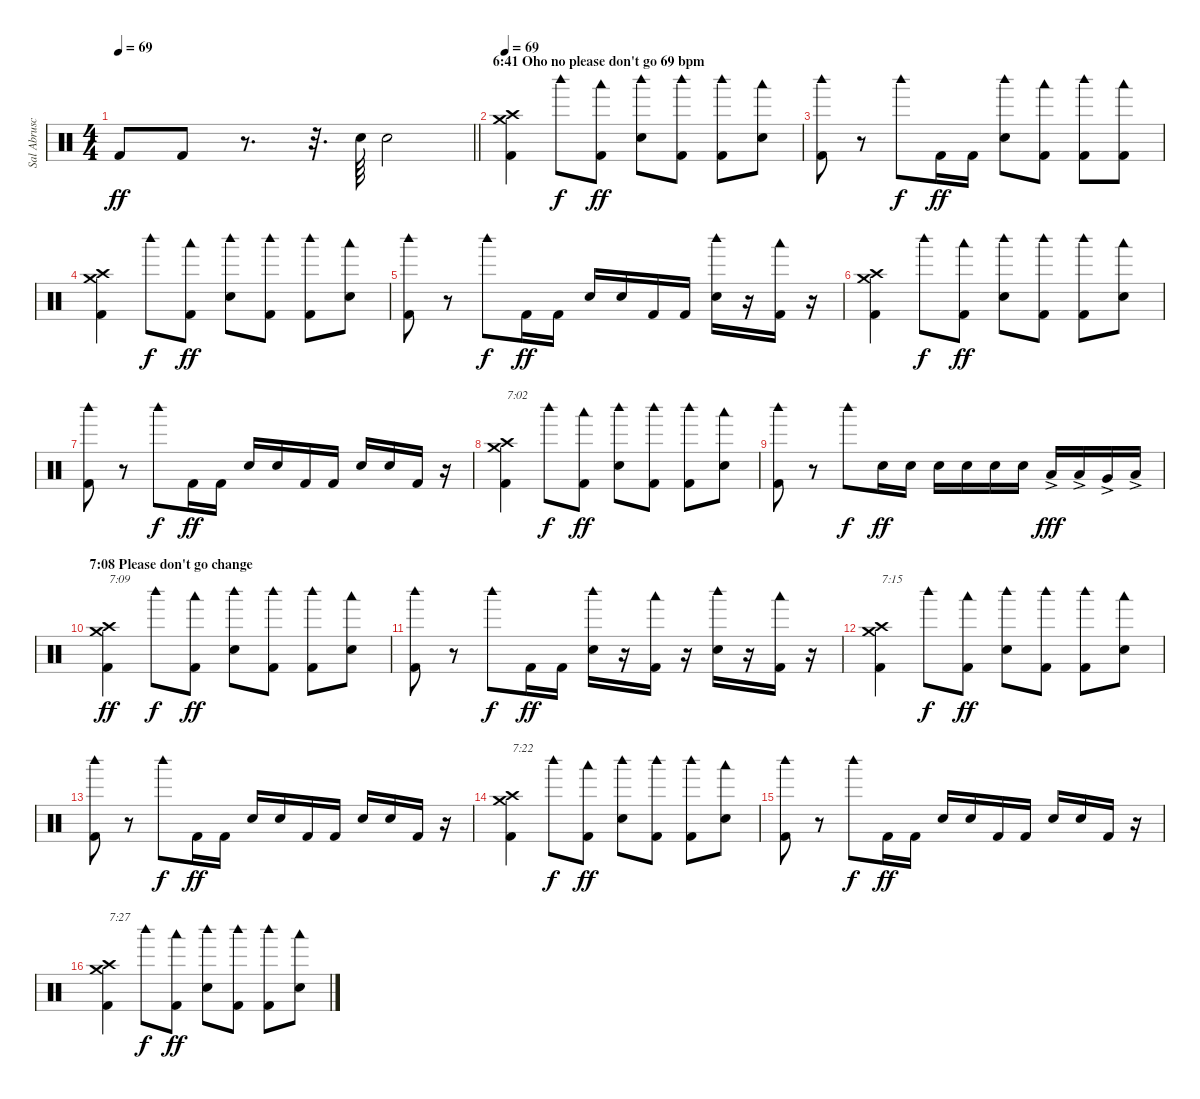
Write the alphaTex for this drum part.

\track ("Sal Abruscato (Drums)" "Sal Abrusc") {instrument percussion}
\staff {score}
\articulation defaults
\ts (4 4)
\tempo 69
\clef neutral
\barLineRight lightlight
\ks c "Kick (hit) 2".8{dy ff} "Kick (hit) 2".8
r.8{d} r.32{d} "Electric Snare (hit)".64 "Electric Snare (hit)".2 |
\section ("" "6:41 Oho no please don't go 69 bpm")
\tempo 69
("Kick (hit) 2" "Crash medium (hit)" "Crash high (hit)").4 "Woodblock high (hit)".8{dy f} ("Kick (hit) 2" "Woodblock low (hit)").8{dy ff} ("Electric Snare (hit)" "Woodblock high (hit)").8 ("Kick (hit) 2" "Woodblock high (hit)").8 ("Kick (hit) 2" "Woodblock high (hit)").8 ("Electric Snare (hit)" "Woodblock low (hit)").8 |
("Kick (hit) 2" "Woodblock high (hit)").8 r.8 "Woodblock high (hit)".8{dy f} "Kick (hit) 2".16{dy ff} "Kick (hit) 2".16 ("Electric Snare (hit)" "Woodblock high (hit)").8 ("Kick (hit) 2" "Woodblock low (hit)").8 ("Kick (hit) 2" "Woodblock high (hit)").8 ("Kick (hit) 2" "Woodblock low (hit)").8 |
("Kick (hit) 2" "Crash medium (hit)" "Crash high (hit)").4 "Woodblock high (hit)".8{dy f} ("Kick (hit) 2" "Woodblock low (hit)").8{dy ff} ("Electric Snare (hit)" "Woodblock high (hit)").8 ("Kick (hit) 2" "Woodblock high (hit)").8 ("Kick (hit) 2" "Woodblock high (hit)").8 ("Electric Snare (hit)" "Woodblock low (hit)").8 |
("Kick (hit) 2" "Woodblock high (hit)").8 r.8 "Woodblock high (hit)".8{dy f} "Kick (hit) 2".16{dy ff} "Kick (hit) 2".16 "Electric Snare (hit)".16 "Electric Snare (hit)".16 "Kick (hit) 2".16 "Kick (hit) 2".16 ("Electric Snare (hit)" "Woodblock high (hit)").16 r.16 ("Kick (hit) 2" "Woodblock low (hit)").16 r.16 |
("Kick (hit) 2" "Crash high (hit)" "Crash medium (hit)").4 "Woodblock high (hit)".8{dy f} ("Kick (hit) 2" "Woodblock low (hit)").8{dy ff} ("Electric Snare (hit)" "Woodblock high (hit)").8 ("Kick (hit) 2" "Woodblock high (hit)").8 ("Kick (hit) 2" "Woodblock high (hit)").8 ("Electric Snare (hit)" "Woodblock low (hit)").8 |
("Kick (hit) 2" "Woodblock high (hit)").8 r.8 "Woodblock high (hit)".8{dy f} "Kick (hit) 2".16{dy ff} "Kick (hit) 2".16 "Electric Snare (hit)".16 "Electric Snare (hit)".16 "Kick (hit) 2".16 "Kick (hit) 2".16 "Electric Snare (hit)".16 "Electric Snare (hit)".16 "Kick (hit) 2".16 r.16 |
("Kick (hit) 2" "Crash high (hit)" "Crash medium (hit)").4{txt "7:02"} "Woodblock high (hit)".8{dy f} ("Kick (hit) 2" "Woodblock low (hit)").8{dy ff} ("Electric Snare (hit)" "Woodblock high (hit)").8 ("Kick (hit) 2" "Woodblock high (hit)").8 ("Kick (hit) 2" "Woodblock high (hit)").8 ("Electric Snare (hit)" "Woodblock low (hit)").8 |
("Kick (hit) 2" "Woodblock high (hit)").8 r.8 "Woodblock high (hit)".8{dy f} "Electric Snare (hit)".16{dy ff} "Electric Snare (hit)".16 "Electric Snare (hit)".16 "Electric Snare (hit)".16 "Electric Snare (hit)".16 "Electric Snare (hit)".16 "Low Tom (hit)"{ac}.16{dy fff} "Low Tom (hit)"{ac}.16 "Very Low Tom (hit)"{ac}.16 "Low Floor Tom (hit)"{ac}.16 |
\section ("" "7:08 Please don't go change")
("Kick (hit) 2" "Crash high (hit)" "Crash medium (hit)").4{txt "7:09" dy ff} "Woodblock high (hit)".8{dy f} ("Kick (hit) 2" "Woodblock low (hit)").8{dy ff} ("Electric Snare (hit)" "Woodblock high (hit)").8 ("Kick (hit) 2" "Woodblock high (hit)").8 ("Kick (hit) 2" "Woodblock high (hit)").8 ("Electric Snare (hit)" "Woodblock low (hit)").8 |
("Kick (hit) 2" "Woodblock high (hit)").8 r.8 "Woodblock high (hit)".8{dy f} "Kick (hit) 2".16{dy ff} "Kick (hit) 2".16 ("Electric Snare (hit)" "Woodblock high (hit)").16 r.16 ("Kick (hit) 2" "Woodblock low (hit)").16 r.16 ("Electric Snare (hit)" "Woodblock high (hit)").16 r.16 ("Kick (hit) 2" "Woodblock low (hit)").16 r.16 |
("Kick (hit) 2" "Crash high (hit)" "Crash medium (hit)").4{txt "7:15"} "Woodblock high (hit)".8{dy f} ("Kick (hit) 2" "Woodblock low (hit)").8{dy ff} ("Electric Snare (hit)" "Woodblock high (hit)").8 ("Kick (hit) 2" "Woodblock high (hit)").8 ("Kick (hit) 2" "Woodblock high (hit)").8 ("Electric Snare (hit)" "Woodblock low (hit)").8 |
("Kick (hit) 2" "Woodblock high (hit)").8 r.8 "Woodblock high (hit)".8{dy f} "Kick (hit) 2".16{dy ff} "Kick (hit) 2".16 "Electric Snare (hit)".16 "Electric Snare (hit)".16 "Kick (hit) 2".16 "Kick (hit) 2".16 "Electric Snare (hit)".16 "Electric Snare (hit)".16 "Kick (hit) 2".16 r.16 |
("Kick (hit) 2" "Crash high (hit)" "Crash medium (hit)").4{txt "7:22"} "Woodblock high (hit)".8{dy f} ("Kick (hit) 2" "Woodblock low (hit)").8{dy ff} ("Electric Snare (hit)" "Woodblock high (hit)").8 ("Kick (hit) 2" "Woodblock high (hit)").8 ("Kick (hit) 2" "Woodblock high (hit)").8 ("Electric Snare (hit)" "Woodblock low (hit)").8 |
("Kick (hit) 2" "Woodblock high (hit)").8 r.8 "Woodblock high (hit)".8{dy f} "Kick (hit) 2".16{dy ff} "Kick (hit) 2".16 "Electric Snare (hit)".16 "Electric Snare (hit)".16 "Kick (hit) 2".16 "Kick (hit) 2".16 "Electric Snare (hit)".16 "Electric Snare (hit)".16 "Kick (hit) 2".16 r.16 |
("Kick (hit) 2" "Crash high (hit)" "Crash medium (hit)").4{txt "7:27"} "Woodblock high (hit)".8{dy f} ("Kick (hit) 2" "Woodblock low (hit)").8{dy ff} ("Electric Snare (hit)" "Woodblock high (hit)").8 ("Kick (hit) 2" "Woodblock high (hit)").8 ("Kick (hit) 2" "Woodblock high (hit)").8 ("Electric Snare (hit)" "Woodblock low (hit)").8
